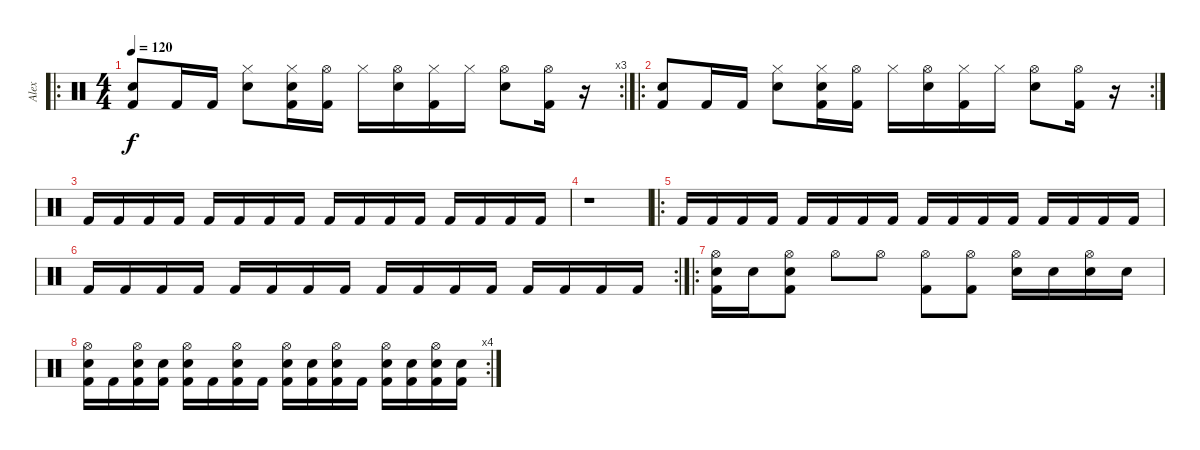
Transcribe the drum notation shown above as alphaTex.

\track ("Alex" "Alex") {instrument percussion}
\staff {score}
\articulation defaults
\ro
\rc 3
\ts (4 4)
\tempo 120
\clef neutral
\ks c
("Electric Snare (hit)" "Kick (hit) 2").8{dy f} "Kick (hit) 2".16 "Kick (hit) 2".16 ("Electric Snare (hit)" "Hi-Hat (closed)").8 ("Electric Snare (hit)" "Hi-Hat (closed)" "Kick (hit) 2").16 ("Hi-Hat (open)" "Kick (hit) 2").16 "Hi-Hat (closed)".16 ("Electric Snare (hit)" "Hi-Hat (open)").16 ("Hi-Hat (closed)" "Kick (hit) 2").16 "Hi-Hat (closed)".16 ("Electric Snare (hit)" "Hi-Hat (open)").8 ("Hi-Hat (open)" "Kick (hit) 2").16 r.16 |
\ro
\rc 2
("Electric Snare (hit)" "Kick (hit) 2").8 "Kick (hit) 2".16 "Kick (hit) 2".16 ("Electric Snare (hit)" "Hi-Hat (closed)").8 ("Electric Snare (hit)" "Hi-Hat (closed)" "Kick (hit) 2").16 ("Hi-Hat (open)" "Kick (hit) 2").16 "Hi-Hat (closed)".16 ("Electric Snare (hit)" "Hi-Hat (open)").16 ("Hi-Hat (closed)" "Kick (hit) 2").16 "Hi-Hat (closed)".16 ("Electric Snare (hit)" "Hi-Hat (open)").8 ("Hi-Hat (open)" "Kick (hit) 2").16 r.16 |
"Kick (hit) 2".16 "Kick (hit) 2".16 "Kick (hit) 2".16 "Kick (hit) 2".16 "Kick (hit) 2".16 "Kick (hit) 2".16 "Kick (hit) 2".16 "Kick (hit) 2".16 "Kick (hit) 2".16 "Kick (hit) 2".16 "Kick (hit) 2".16 "Kick (hit) 2".16 "Kick (hit) 2".16 "Kick (hit) 2".16 "Kick (hit) 2".16 "Kick (hit) 2".16 |
r.1 |
\ro "Kick (hit) 2".16 "Kick (hit) 2".16 "Kick (hit) 2".16 "Kick (hit) 2".16 "Kick (hit) 2".16 "Kick (hit) 2".16 "Kick (hit) 2".16 "Kick (hit) 2".16 "Kick (hit) 2".16 "Kick (hit) 2".16 "Kick (hit) 2".16 "Kick (hit) 2".16 "Kick (hit) 2".16 "Kick (hit) 2".16 "Kick (hit) 2".16 "Kick (hit) 2".16
|
\rc 2 "Kick (hit) 2".16 "Kick (hit) 2".16 "Kick (hit) 2".16 "Kick (hit) 2".16 "Kick (hit) 2".16 "Kick (hit) 2".16 "Kick (hit) 2".16 "Kick (hit) 2".16 "Kick (hit) 2".16 "Kick (hit) 2".16 "Kick (hit) 2".16 "Kick (hit) 2".16 "Kick (hit) 2".16 "Kick (hit) 2".16 "Kick (hit) 2".16 "Kick (hit) 2".16
|
\ro
("Electric Snare (hit)" "Hi-Hat (open)" "Kick (hit) 2").16 "Electric Snare (hit)".16 ("Electric Snare (hit)" "Hi-Hat (open)" "Kick (hit) 2").8 "Hi-Hat (open)".8 "Hi-Hat (open)".8 ("Hi-Hat (open)" "Kick (hit) 2").8 ("Hi-Hat (open)" "Kick (hit) 2").8 ("Electric Snare (hit)" "Hi-Hat (open)").16 "Electric Snare (hit)".16 ("Electric Snare (hit)" "Hi-Hat (open)").16 "Electric Snare (hit)".16 |
\rc 4
("Electric Snare (hit)" "Hi-Hat (open)" "Kick (hit) 2").16 "Kick (hit) 2".16 ("Electric Snare (hit)" "Hi-Hat (open)" "Kick (hit) 2").16 ("Electric Snare (hit)" "Kick (hit) 2").16 ("Electric Snare (hit)" "Hi-Hat (open)" "Kick (hit) 2").16 "Kick (hit) 2".16 ("Electric Snare (hit)" "Hi-Hat (open)" "Kick (hit) 2").16 "Kick (hit) 2".16 ("Electric Snare (hit)" "Hi-Hat (open)" "Kick (hit) 2").16 ("Electric Snare (hit)" "Kick (hit) 2").16 ("Electric Snare (hit)" "Hi-Hat (open)" "Kick (hit) 2").16 "Kick (hit) 2".16 ("Electric Snare (hit)" "Hi-Hat (open)" "Kick (hit) 2").16 ("Electric Snare (hit)" "Kick (hit) 2").16 ("Electric Snare (hit)" "Hi-Hat (open)" "Kick (hit) 2").16 ("Electric Snare (hit)" "Kick (hit) 2").16
